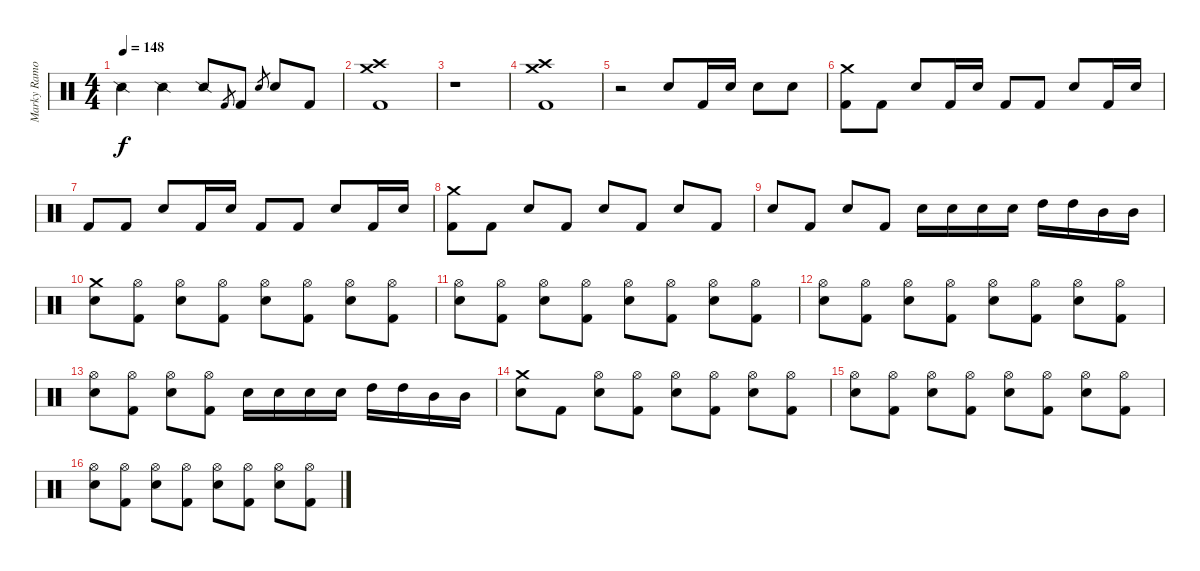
\track ("Marky Ramone" "Marky Ramo") {instrument percussion}
\staff {score}
\articulation defaults
\ts (4 4)
\tempo 148
\clef neutral
\ks c "Snare (side stick) 2".4{dy f} "Snare (side stick) 2".4 "Snare (side stick) 2".8 "Kick (hit) 2".8{gr} "Kick (hit) 2".8 "Snare (hit) 2".8{gr} "Snare (hit) 2".8 "Kick (hit) 2".8
|
("Crash medium (hit)" "Crash high (hit)" "Kick (hit) 2").1 |
r.1 |
("Crash medium (hit)" "Crash high (hit)" "Kick (hit) 2").1 |
r.2 "Snare (hit) 2".8 "Kick (hit) 2".16 "Snare (hit) 2".16 "Snare (hit) 2".8 "Snare (hit) 2".8 |
("Crash medium (hit)" "Kick (hit) 2").8 "Kick (hit) 2".8 "Snare (hit) 2".8 "Kick (hit) 2".16 "Snare (hit) 2".16 "Kick (hit) 2".8 "Kick (hit) 2".8 "Snare (hit) 2".8 "Kick (hit) 2".16 "Snare (hit) 2".16 |
"Kick (hit) 2".8 "Kick (hit) 2".8 "Snare (hit) 2".8 "Kick (hit) 2".16 "Snare (hit) 2".16 "Kick (hit) 2".8 "Kick (hit) 2".8 "Snare (hit) 2".8 "Kick (hit) 2".16 "Snare (hit) 2".16 |
("Crash medium (hit)" "Kick (hit) 2").8 "Kick (hit) 2".8 "Snare (hit) 2".8 "Kick (hit) 2".8 "Snare (hit) 2".8 "Kick (hit) 2".8 "Snare (hit) 2".8 "Kick (hit) 2".8 |
"Snare (hit) 2".8 "Kick (hit) 2".8 "Snare (hit) 2".8 "Kick (hit) 2".8 "Snare (hit) 2".16 "Snare (hit) 2".16 "Snare (hit) 2".16 "Snare (hit) 2".16 "High Tom (hit)".16 "High Tom (hit)".16 "Mid Tom (hit)".16 "Mid Tom (hit)".16 |
("Crash medium (hit)" "Snare (hit) 2").8 ("Hi-Hat (open)" "Kick (hit) 2").8 ("Hi-Hat (open)" "Snare (hit) 2").8 ("Hi-Hat (open)" "Kick (hit) 2").8 ("Hi-Hat (open)" "Snare (hit) 2").8 ("Hi-Hat (open)" "Kick (hit) 2").8 ("Hi-Hat (open)" "Snare (hit) 2").8 ("Hi-Hat (open)" "Kick (hit) 2").8 |
("Hi-Hat (open)" "Snare (hit) 2").8 ("Hi-Hat (open)" "Kick (hit) 2").8 ("Hi-Hat (open)" "Snare (hit) 2").8 ("Hi-Hat (open)" "Kick (hit) 2").8 ("Hi-Hat (open)" "Snare (hit) 2").8 ("Hi-Hat (open)" "Kick (hit) 2").8 ("Hi-Hat (open)" "Snare (hit) 2").8 ("Hi-Hat (open)" "Kick (hit) 2").8 |
("Hi-Hat (open)" "Snare (hit) 2").8 ("Hi-Hat (open)" "Kick (hit) 2").8 ("Hi-Hat (open)" "Snare (hit) 2").8 ("Hi-Hat (open)" "Kick (hit) 2").8 ("Hi-Hat (open)" "Snare (hit) 2").8 ("Hi-Hat (open)" "Kick (hit) 2").8 ("Hi-Hat (open)" "Snare (hit) 2").8 ("Hi-Hat (open)" "Kick (hit) 2").8 |
("Hi-Hat (open)" "Snare (hit) 2").8 ("Hi-Hat (open)" "Kick (hit) 2").8 ("Hi-Hat (open)" "Snare (hit) 2").8 ("Hi-Hat (open)" "Kick (hit) 2").8 "Snare (hit) 2".16 "Snare (hit) 2".16 "Snare (hit) 2".16 "Snare (hit) 2".16 "High Tom (hit)".16 "High Tom (hit)".16 "Mid Tom (hit)".16 "Mid Tom (hit)".16 |
("Crash medium (hit)" "Snare (hit) 2").8 "Kick (hit) 2".8 ("Hi-Hat (open)" "Snare (hit) 2").8 ("Hi-Hat (open)" "Kick (hit) 2").8 ("Hi-Hat (open)" "Snare (hit) 2").8 ("Hi-Hat (open)" "Kick (hit) 2").8 ("Hi-Hat (open)" "Snare (hit) 2").8 ("Hi-Hat (open)" "Kick (hit) 2").8 |
("Hi-Hat (open)" "Snare (hit) 2").8 ("Hi-Hat (open)" "Kick (hit) 2").8 ("Hi-Hat (open)" "Snare (hit) 2").8 ("Hi-Hat (open)" "Kick (hit) 2").8 ("Hi-Hat (open)" "Snare (hit) 2").8 ("Hi-Hat (open)" "Kick (hit) 2").8 ("Hi-Hat (open)" "Snare (hit) 2").8 ("Hi-Hat (open)" "Kick (hit) 2").8 |
("Hi-Hat (open)" "Snare (hit) 2").8 ("Hi-Hat (open)" "Kick (hit) 2").8 ("Hi-Hat (open)" "Snare (hit) 2").8 ("Hi-Hat (open)" "Kick (hit) 2").8 ("Hi-Hat (open)" "Snare (hit) 2").8 ("Hi-Hat (open)" "Kick (hit) 2").8 ("Hi-Hat (open)" "Snare (hit) 2").8 ("Hi-Hat (open)" "Kick (hit) 2").8
